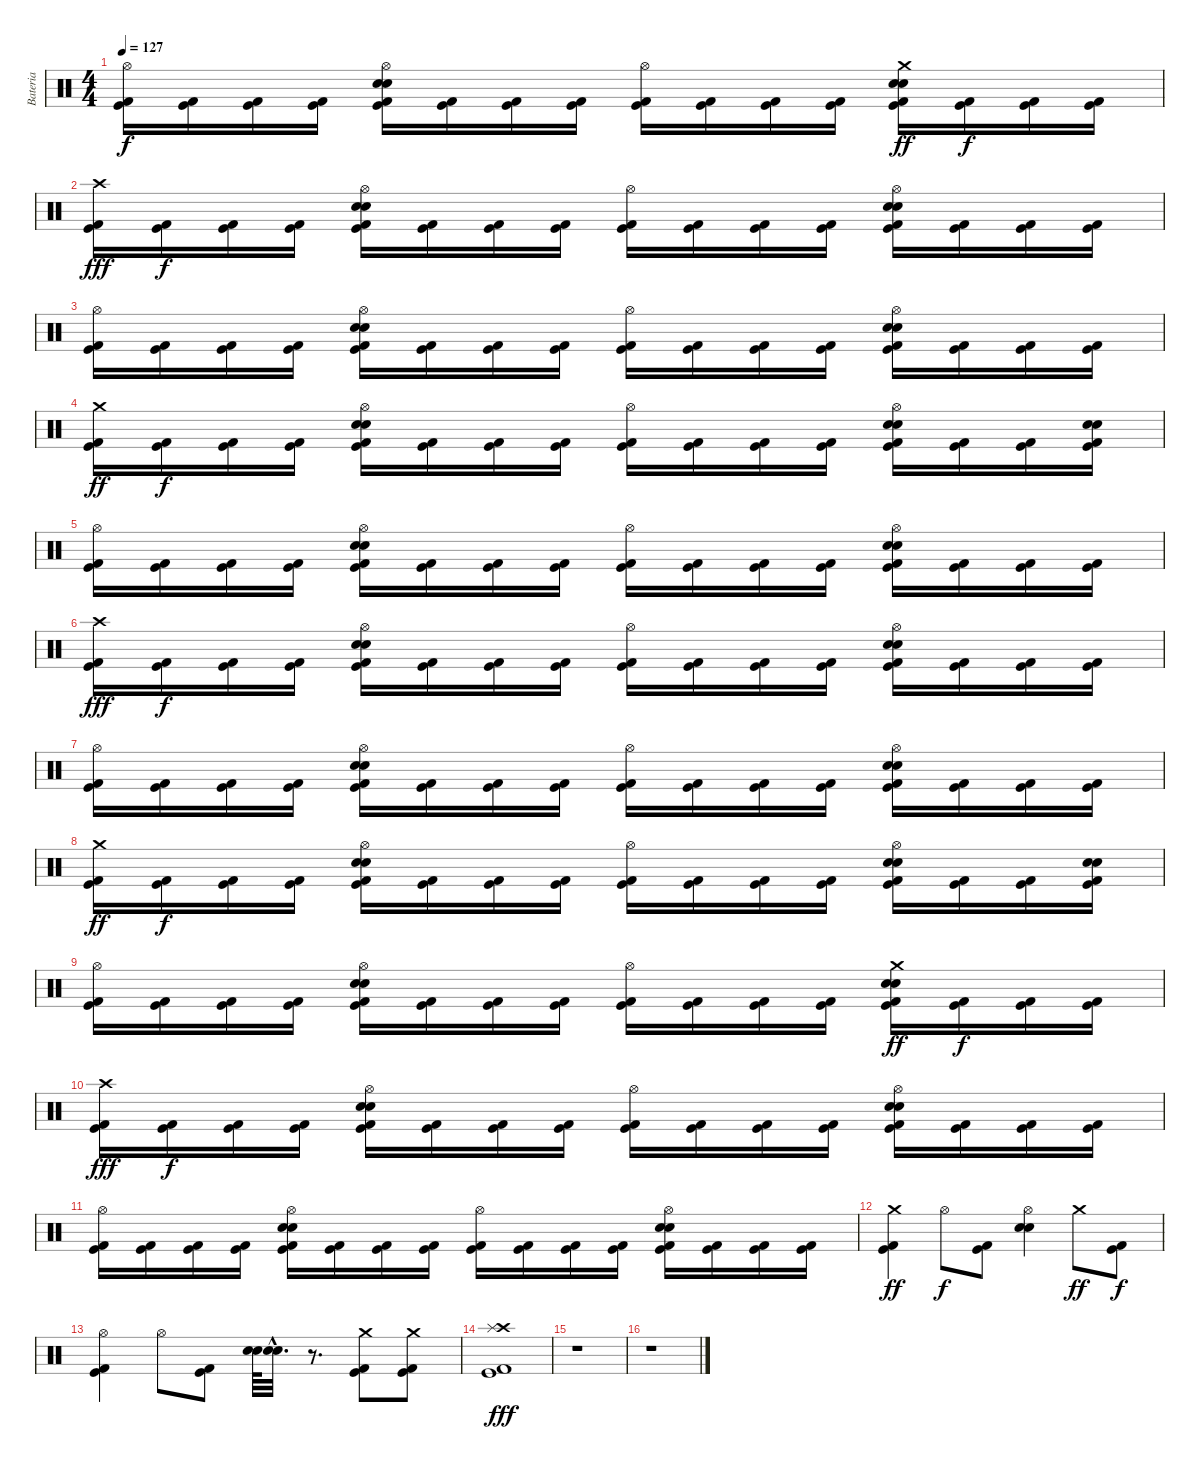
\track ("Bateria" "Bateria") {instrument percussion}
\staff {score}
\articulation defaults
\ts (4 4)
\tempo 127
\clef neutral
\ks c
("Hi-Hat (open)" "Kick (hit) 2" "Kick (hit)").16{dy f} ("Kick (hit) 2" "Kick (hit)").16 ("Kick (hit) 2" "Kick (hit)").16 ("Kick (hit) 2" "Kick (hit)").16 ("Hi-Hat (open)" "Electric Snare (hit)" "Snare (hit) 2" "Kick (hit) 2" "Kick (hit)").16 ("Kick (hit) 2" "Kick (hit)").16 ("Kick (hit) 2" "Kick (hit)").16 ("Kick (hit) 2" "Kick (hit)").16 ("Hi-Hat (open)" "Kick (hit) 2" "Kick (hit)").16 ("Kick (hit) 2" "Kick (hit)").16 ("Kick (hit) 2" "Kick (hit)").16 ("Kick (hit) 2" "Kick (hit)").16 ("Crash medium (hit)" "Electric Snare (hit)" "Snare (hit) 2" "Kick (hit) 2" "Kick (hit)").16{dy ff} ("Kick (hit) 2" "Kick (hit)").16{dy f} ("Kick (hit) 2" "Kick (hit)").16 ("Kick (hit) 2" "Kick (hit)").16 |
("Crash high (hit)" "Kick (hit) 2" "Kick (hit)").16{dy fff} ("Kick (hit) 2" "Kick (hit)").16{dy f} ("Kick (hit) 2" "Kick (hit)").16 ("Kick (hit) 2" "Kick (hit)").16 ("Hi-Hat (open)" "Electric Snare (hit)" "Snare (hit) 2" "Kick (hit) 2" "Kick (hit)").16 ("Kick (hit) 2" "Kick (hit)").16 ("Kick (hit) 2" "Kick (hit)").16 ("Kick (hit) 2" "Kick (hit)").16 ("Hi-Hat (open)" "Kick (hit) 2" "Kick (hit)").16 ("Kick (hit) 2" "Kick (hit)").16 ("Kick (hit) 2" "Kick (hit)").16 ("Kick (hit) 2" "Kick (hit)").16 ("Hi-Hat (open)" "Electric Snare (hit)" "Snare (hit) 2" "Kick (hit) 2" "Kick (hit)").16 ("Kick (hit) 2" "Kick (hit)").16 ("Kick (hit) 2" "Kick (hit)").16 ("Kick (hit) 2" "Kick (hit)").16 |
("Hi-Hat (open)" "Kick (hit) 2" "Kick (hit)").16 ("Kick (hit) 2" "Kick (hit)").16 ("Kick (hit) 2" "Kick (hit)").16 ("Kick (hit) 2" "Kick (hit)").16 ("Hi-Hat (open)" "Electric Snare (hit)" "Snare (hit) 2" "Kick (hit) 2" "Kick (hit)").16 ("Kick (hit) 2" "Kick (hit)").16 ("Kick (hit) 2" "Kick (hit)").16 ("Kick (hit) 2" "Kick (hit)").16 ("Hi-Hat (open)" "Kick (hit) 2" "Kick (hit)").16 ("Kick (hit) 2" "Kick (hit)").16 ("Kick (hit) 2" "Kick (hit)").16 ("Kick (hit) 2" "Kick (hit)").16 ("Hi-Hat (open)" "Electric Snare (hit)" "Snare (hit) 2" "Kick (hit) 2" "Kick (hit)").16 ("Kick (hit) 2" "Kick (hit)").16 ("Kick (hit) 2" "Kick (hit)").16 ("Kick (hit) 2" "Kick (hit)").16 |
("Crash medium (hit)" "Kick (hit) 2" "Kick (hit)").16{dy ff} ("Kick (hit) 2" "Kick (hit)").16{dy f} ("Kick (hit) 2" "Kick (hit)").16 ("Kick (hit) 2" "Kick (hit)").16 ("Hi-Hat (open)" "Electric Snare (hit)" "Snare (hit) 2" "Kick (hit) 2" "Kick (hit)").16 ("Kick (hit) 2" "Kick (hit)").16 ("Kick (hit) 2" "Kick (hit)").16 ("Kick (hit) 2" "Kick (hit)").16 ("Hi-Hat (open)" "Kick (hit) 2" "Kick (hit)").16 ("Kick (hit) 2" "Kick (hit)").16 ("Kick (hit) 2" "Kick (hit)").16 ("Kick (hit) 2" "Kick (hit)").16 ("Hi-Hat (open)" "Electric Snare (hit)" "Snare (hit) 2" "Kick (hit) 2" "Kick (hit)").16 ("Kick (hit) 2" "Kick (hit)").16 ("Kick (hit) 2" "Kick (hit)").16 ("Electric Snare (hit)" "Snare (hit) 2" "Kick (hit) 2" "Kick (hit)").16 |
("Hi-Hat (open)" "Kick (hit) 2" "Kick (hit)").16 ("Kick (hit) 2" "Kick (hit)").16 ("Kick (hit) 2" "Kick (hit)").16 ("Kick (hit) 2" "Kick (hit)").16 ("Hi-Hat (open)" "Electric Snare (hit)" "Snare (hit) 2" "Kick (hit) 2" "Kick (hit)").16 ("Kick (hit) 2" "Kick (hit)").16 ("Kick (hit) 2" "Kick (hit)").16 ("Kick (hit) 2" "Kick (hit)").16 ("Hi-Hat (open)" "Kick (hit) 2" "Kick (hit)").16 ("Kick (hit) 2" "Kick (hit)").16 ("Kick (hit) 2" "Kick (hit)").16 ("Kick (hit) 2" "Kick (hit)").16 ("Hi-Hat (open)" "Electric Snare (hit)" "Snare (hit) 2" "Kick (hit) 2" "Kick (hit)").16 ("Kick (hit) 2" "Kick (hit)").16 ("Kick (hit) 2" "Kick (hit)").16 ("Kick (hit) 2" "Kick (hit)").16 |
("Crash high (hit)" "Kick (hit) 2" "Kick (hit)").16{dy fff} ("Kick (hit) 2" "Kick (hit)").16{dy f} ("Kick (hit) 2" "Kick (hit)").16 ("Kick (hit) 2" "Kick (hit)").16 ("Hi-Hat (open)" "Electric Snare (hit)" "Snare (hit) 2" "Kick (hit) 2" "Kick (hit)").16 ("Kick (hit) 2" "Kick (hit)").16 ("Kick (hit) 2" "Kick (hit)").16 ("Kick (hit) 2" "Kick (hit)").16 ("Hi-Hat (open)" "Kick (hit) 2" "Kick (hit)").16 ("Kick (hit) 2" "Kick (hit)").16 ("Kick (hit) 2" "Kick (hit)").16 ("Kick (hit) 2" "Kick (hit)").16 ("Hi-Hat (open)" "Electric Snare (hit)" "Snare (hit) 2" "Kick (hit) 2" "Kick (hit)").16 ("Kick (hit) 2" "Kick (hit)").16 ("Kick (hit) 2" "Kick (hit)").16 ("Kick (hit) 2" "Kick (hit)").16 |
("Hi-Hat (open)" "Kick (hit) 2" "Kick (hit)").16 ("Kick (hit) 2" "Kick (hit)").16 ("Kick (hit) 2" "Kick (hit)").16 ("Kick (hit) 2" "Kick (hit)").16 ("Hi-Hat (open)" "Electric Snare (hit)" "Snare (hit) 2" "Kick (hit) 2" "Kick (hit)").16 ("Kick (hit) 2" "Kick (hit)").16 ("Kick (hit) 2" "Kick (hit)").16 ("Kick (hit) 2" "Kick (hit)").16 ("Hi-Hat (open)" "Kick (hit) 2" "Kick (hit)").16 ("Kick (hit) 2" "Kick (hit)").16 ("Kick (hit) 2" "Kick (hit)").16 ("Kick (hit) 2" "Kick (hit)").16 ("Hi-Hat (open)" "Electric Snare (hit)" "Snare (hit) 2" "Kick (hit) 2" "Kick (hit)").16 ("Kick (hit) 2" "Kick (hit)").16 ("Kick (hit) 2" "Kick (hit)").16 ("Kick (hit) 2" "Kick (hit)").16 |
("Crash medium (hit)" "Kick (hit) 2" "Kick (hit)").16{dy ff} ("Kick (hit) 2" "Kick (hit)").16{dy f} ("Kick (hit) 2" "Kick (hit)").16 ("Kick (hit) 2" "Kick (hit)").16 ("Hi-Hat (open)" "Electric Snare (hit)" "Snare (hit) 2" "Kick (hit) 2" "Kick (hit)").16 ("Kick (hit) 2" "Kick (hit)").16 ("Kick (hit) 2" "Kick (hit)").16 ("Kick (hit) 2" "Kick (hit)").16 ("Hi-Hat (open)" "Kick (hit) 2" "Kick (hit)").16 ("Kick (hit) 2" "Kick (hit)").16 ("Kick (hit) 2" "Kick (hit)").16 ("Kick (hit) 2" "Kick (hit)").16 ("Hi-Hat (open)" "Electric Snare (hit)" "Snare (hit) 2" "Kick (hit) 2" "Kick (hit)").16 ("Kick (hit) 2" "Kick (hit)").16 ("Kick (hit) 2" "Kick (hit)").16 ("Electric Snare (hit)" "Snare (hit) 2" "Kick (hit) 2" "Kick (hit)").16 |
("Hi-Hat (open)" "Kick (hit) 2" "Kick (hit)").16 ("Kick (hit) 2" "Kick (hit)").16 ("Kick (hit) 2" "Kick (hit)").16 ("Kick (hit) 2" "Kick (hit)").16 ("Hi-Hat (open)" "Electric Snare (hit)" "Snare (hit) 2" "Kick (hit) 2" "Kick (hit)").16 ("Kick (hit) 2" "Kick (hit)").16 ("Kick (hit) 2" "Kick (hit)").16 ("Kick (hit) 2" "Kick (hit)").16 ("Hi-Hat (open)" "Kick (hit) 2" "Kick (hit)").16 ("Kick (hit) 2" "Kick (hit)").16 ("Kick (hit) 2" "Kick (hit)").16 ("Kick (hit) 2" "Kick (hit)").16 ("Crash medium (hit)" "Electric Snare (hit)" "Snare (hit) 2" "Kick (hit) 2" "Kick (hit)").16{dy ff} ("Kick (hit) 2" "Kick (hit)").16{dy f} ("Kick (hit) 2" "Kick (hit)").16 ("Kick (hit) 2" "Kick (hit)").16 |
("Crash high (hit)" "Kick (hit) 2" "Kick (hit)").16{dy fff} ("Kick (hit) 2" "Kick (hit)").16{dy f} ("Kick (hit) 2" "Kick (hit)").16 ("Kick (hit) 2" "Kick (hit)").16 ("Hi-Hat (open)" "Electric Snare (hit)" "Snare (hit) 2" "Kick (hit) 2" "Kick (hit)").16 ("Kick (hit) 2" "Kick (hit)").16 ("Kick (hit) 2" "Kick (hit)").16 ("Kick (hit) 2" "Kick (hit)").16 ("Hi-Hat (open)" "Kick (hit) 2" "Kick (hit)").16 ("Kick (hit) 2" "Kick (hit)").16 ("Kick (hit) 2" "Kick (hit)").16 ("Kick (hit) 2" "Kick (hit)").16 ("Hi-Hat (open)" "Electric Snare (hit)" "Snare (hit) 2" "Kick (hit) 2" "Kick (hit)").16 ("Kick (hit) 2" "Kick (hit)").16 ("Kick (hit) 2" "Kick (hit)").16 ("Kick (hit) 2" "Kick (hit)").16 |
("Hi-Hat (open)" "Kick (hit) 2" "Kick (hit)").16 ("Kick (hit) 2" "Kick (hit)").16 ("Kick (hit) 2" "Kick (hit)").16 ("Kick (hit) 2" "Kick (hit)").16 ("Hi-Hat (open)" "Electric Snare (hit)" "Snare (hit) 2" "Kick (hit) 2" "Kick (hit)").16 ("Kick (hit) 2" "Kick (hit)").16 ("Kick (hit) 2" "Kick (hit)").16 ("Kick (hit) 2" "Kick (hit)").16 ("Hi-Hat (open)" "Kick (hit) 2" "Kick (hit)").16 ("Kick (hit) 2" "Kick (hit)").16 ("Kick (hit) 2" "Kick (hit)").16 ("Kick (hit) 2" "Kick (hit)").16 ("Hi-Hat (open)" "Electric Snare (hit)" "Snare (hit) 2" "Kick (hit) 2" "Kick (hit)").16 ("Kick (hit) 2" "Kick (hit)").16 ("Kick (hit) 2" "Kick (hit)").16 ("Kick (hit) 2" "Kick (hit)").16 |
("Crash medium (hit)" "Kick (hit) 2" "Kick (hit)").4{dy ff} "Hi-Hat (open)".8{dy f} ("Kick (hit) 2" "Kick (hit)").8 ("Hi-Hat (open)" "Electric Snare (hit)" "Snare (hit) 2").4 "Crash medium (hit)".8{dy ff} ("Kick (hit) 2" "Kick (hit)").8{dy f} |
("Hi-Hat (open)" "Kick (hit) 2" "Kick (hit)").4 "Hi-Hat (open)".8 ("Kick (hit) 2" "Kick (hit)").8 ("Electric Snare (hit)" "Snare (hit) 2").64 ("Electric Snare (hit)"{hac} "Snare (hit) 2"{hac}).32{d} r.8{d} ("Crash medium (hit)" "Kick (hit) 2" "Kick (hit)").8 ("Crash medium (hit)" "Kick (hit) 2" "Kick (hit)").8 |
("Crash high (hit)" "Splash (hit)" "Kick (hit) 2" "Kick (hit)").1{dy fff} |
r.1 |
r.1
